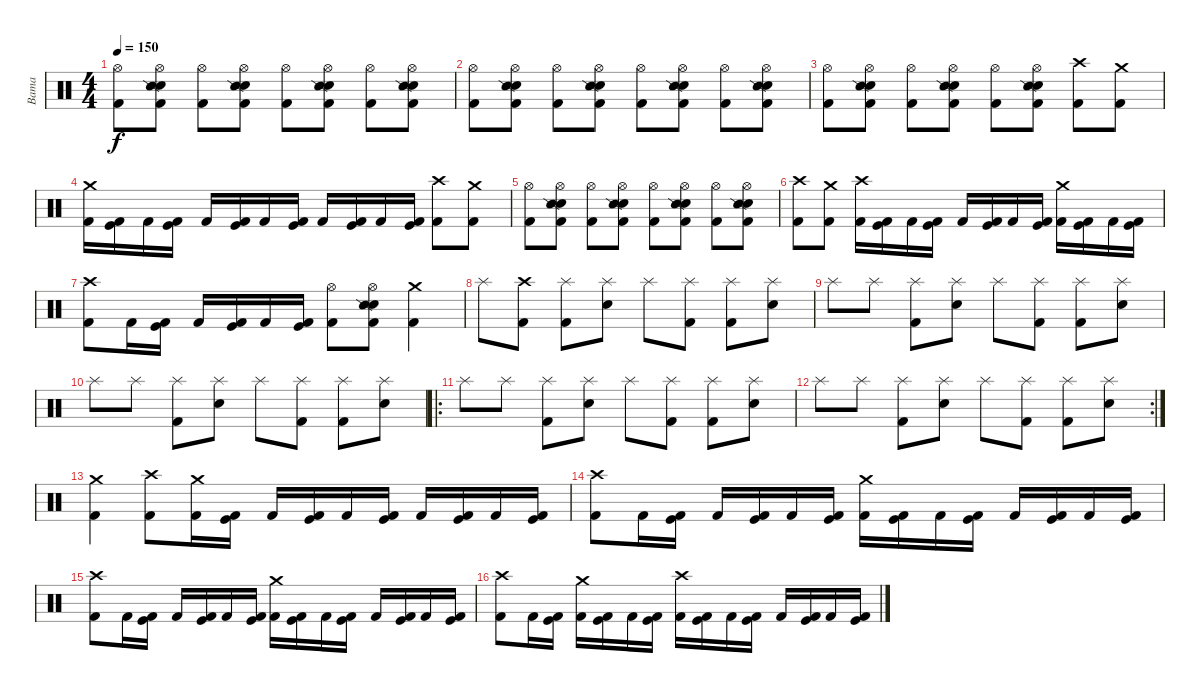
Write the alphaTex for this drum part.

\track ("Bama" "Bama") {instrument percussion}
\staff {score}
\articulation defaults
\ts (4 4)
\tempo 150
\clef neutral
\ks c
("Hi-Hat (open)" "Kick (hit) 2").8{dy f} ("Hi-Hat (open)" "Electric Snare (hit)" "Snare (side stick) 2" "Kick (hit) 2").8 ("Hi-Hat (open)" "Kick (hit) 2").8 ("Hi-Hat (open)" "Electric Snare (hit)" "Snare (side stick) 2" "Kick (hit) 2").8 ("Hi-Hat (open)" "Kick (hit) 2").8 ("Hi-Hat (open)" "Electric Snare (hit)" "Snare (side stick) 2" "Kick (hit) 2").8 ("Hi-Hat (open)" "Kick (hit) 2").8 ("Hi-Hat (open)" "Electric Snare (hit)" "Snare (side stick) 2" "Kick (hit) 2").8 |
("Hi-Hat (open)" "Kick (hit) 2").8 ("Hi-Hat (open)" "Electric Snare (hit)" "Snare (side stick) 2" "Kick (hit) 2").8 ("Hi-Hat (open)" "Kick (hit) 2").8 ("Hi-Hat (open)" "Electric Snare (hit)" "Snare (side stick) 2" "Kick (hit) 2").8 ("Hi-Hat (open)" "Kick (hit) 2").8 ("Hi-Hat (open)" "Electric Snare (hit)" "Snare (side stick) 2" "Kick (hit) 2").8 ("Hi-Hat (open)" "Kick (hit) 2").8 ("Hi-Hat (open)" "Electric Snare (hit)" "Snare (side stick) 2" "Kick (hit) 2").8 |
("Hi-Hat (open)" "Kick (hit) 2").8 ("Hi-Hat (open)" "Electric Snare (hit)" "Snare (side stick) 2" "Kick (hit) 2").8 ("Hi-Hat (open)" "Kick (hit) 2").8 ("Hi-Hat (open)" "Electric Snare (hit)" "Snare (side stick) 2" "Kick (hit) 2").8 ("Hi-Hat (open)" "Kick (hit) 2").8 ("Hi-Hat (open)" "Electric Snare (hit)" "Snare (side stick) 2" "Kick (hit) 2").8 ("Crash high (hit)" "Kick (hit) 2").8 ("Crash medium (hit)" "Kick (hit) 2").8 |
("Crash medium (hit)" "Kick (hit) 2").16 ("Kick (hit)" "Kick (hit) 2").16 "Kick (hit) 2".16 ("Kick (hit)" "Kick (hit) 2").16 "Kick (hit) 2".16 ("Kick (hit)" "Kick (hit) 2").16 "Kick (hit) 2".16 ("Kick (hit)" "Kick (hit) 2").16 "Kick (hit) 2".16 ("Kick (hit)" "Kick (hit) 2").16 "Kick (hit) 2".16 ("Kick (hit)" "Kick (hit) 2").16 ("Crash high (hit)" "Kick (hit) 2").8 ("Crash medium (hit)" "Kick (hit) 2").8 |
("Hi-Hat (open)" "Kick (hit) 2").8 ("Hi-Hat (open)" "Electric Snare (hit)" "Snare (side stick) 2" "Kick (hit) 2").8 ("Hi-Hat (open)" "Kick (hit) 2").8 ("Hi-Hat (open)" "Electric Snare (hit)" "Snare (side stick) 2" "Kick (hit) 2").8 ("Hi-Hat (open)" "Kick (hit) 2").8 ("Hi-Hat (open)" "Electric Snare (hit)" "Snare (side stick) 2" "Kick (hit) 2").8 ("Hi-Hat (open)" "Kick (hit) 2").8 ("Hi-Hat (open)" "Electric Snare (hit)" "Snare (side stick) 2" "Kick (hit) 2").8 |
("Crash high (hit)" "Kick (hit) 2").8 ("Crash medium (hit)" "Kick (hit) 2").8 ("Crash high (hit)" "Kick (hit) 2").16 ("Kick (hit)" "Kick (hit) 2").16 "Kick (hit) 2".16 ("Kick (hit)" "Kick (hit) 2").16 "Kick (hit) 2".16 ("Kick (hit)" "Kick (hit) 2").16 "Kick (hit) 2".16 ("Kick (hit)" "Kick (hit) 2").16 ("Crash medium (hit)" "Kick (hit) 2").16 ("Kick (hit)" "Kick (hit) 2").16 "Kick (hit) 2".16 ("Kick (hit)" "Kick (hit) 2").16 |
("Crash high (hit)" "Kick (hit) 2").8 "Kick (hit) 2".16 ("Kick (hit)" "Kick (hit) 2").16 "Kick (hit) 2".16 ("Kick (hit)" "Kick (hit) 2").16 "Kick (hit) 2".16 ("Kick (hit)" "Kick (hit) 2").16 ("Hi-Hat (open)" "Kick (hit) 2").8 ("Hi-Hat (open)" "Electric Snare (hit)" "Snare (side stick) 2" "Kick (hit) 2").8 ("Crash medium (hit)" "Kick (hit) 2").4 |
"Splash (hit)".8 ("Crash high (hit)" "Kick (hit) 2").8 ("Splash (hit)" "Kick (hit) 2").8 ("Splash (hit)" "Electric Snare (hit)").8 "Splash (hit)".8 ("Splash (hit)" "Kick (hit) 2").8 ("Splash (hit)" "Kick (hit) 2").8 ("Splash (hit)" "Electric Snare (hit)").8 |
"Splash (hit)".8 "Splash (hit)".8 ("Splash (hit)" "Kick (hit) 2").8 ("Splash (hit)" "Electric Snare (hit)").8 "Splash (hit)".8 ("Splash (hit)" "Kick (hit) 2").8 ("Splash (hit)" "Kick (hit) 2").8 ("Splash (hit)" "Electric Snare (hit)").8 |
"Splash (hit)".8 "Splash (hit)".8 ("Splash (hit)" "Kick (hit) 2").8 ("Splash (hit)" "Electric Snare (hit)").8 "Splash (hit)".8 ("Splash (hit)" "Kick (hit) 2").8 ("Splash (hit)" "Kick (hit) 2").8 ("Splash (hit)" "Electric Snare (hit)").8 |
\ro "Splash (hit)".8 "Splash (hit)".8
("Splash (hit)" "Kick (hit) 2").8 ("Splash (hit)" "Electric Snare (hit)").8 "Splash (hit)".8 ("Splash (hit)" "Kick (hit) 2").8 ("Splash (hit)" "Kick (hit) 2").8 ("Splash (hit)" "Electric Snare (hit)").8 |
\rc 2 "Splash (hit)".8 "Splash (hit)".8
("Splash (hit)" "Kick (hit) 2").8 ("Splash (hit)" "Electric Snare (hit)").8 "Splash (hit)".8 ("Splash (hit)" "Kick (hit) 2").8 ("Splash (hit)" "Kick (hit) 2").8 ("Splash (hit)" "Electric Snare (hit)").8 |
("Crash medium (hit)" "Kick (hit) 2").4 ("Crash high (hit)" "Kick (hit) 2").8 ("Crash medium (hit)" "Kick (hit) 2").16 ("Kick (hit)" "Kick (hit) 2").16 "Kick (hit) 2".16 ("Kick (hit)" "Kick (hit) 2").16 "Kick (hit) 2".16 ("Kick (hit)" "Kick (hit) 2").16 "Kick (hit) 2".16 ("Kick (hit)" "Kick (hit) 2").16 "Kick (hit) 2".16 ("Kick (hit)" "Kick (hit) 2").16 |
("Crash high (hit)" "Kick (hit) 2").8 "Kick (hit) 2".16 ("Kick (hit)" "Kick (hit) 2").16 "Kick (hit) 2".16 ("Kick (hit)" "Kick (hit) 2").16 "Kick (hit) 2".16 ("Kick (hit)" "Kick (hit) 2").16 ("Crash medium (hit)" "Kick (hit) 2").16 ("Kick (hit)" "Kick (hit) 2").16 "Kick (hit) 2".16 ("Kick (hit)" "Kick (hit) 2").16 "Kick (hit) 2".16 ("Kick (hit)" "Kick (hit) 2").16 "Kick (hit) 2".16 ("Kick (hit)" "Kick (hit) 2").16 |
("Crash high (hit)" "Kick (hit) 2").8 "Kick (hit) 2".16 ("Kick (hit)" "Kick (hit) 2").16 "Kick (hit) 2".16 ("Kick (hit)" "Kick (hit) 2").16 "Kick (hit) 2".16 ("Kick (hit)" "Kick (hit) 2").16 ("Crash medium (hit)" "Kick (hit) 2").16 ("Kick (hit)" "Kick (hit) 2").16 "Kick (hit) 2".16 ("Kick (hit)" "Kick (hit) 2").16 "Kick (hit) 2".16 ("Kick (hit)" "Kick (hit) 2").16 "Kick (hit) 2".16 ("Kick (hit)" "Kick (hit) 2").16 |
("Crash high (hit)" "Kick (hit) 2").8 "Kick (hit) 2".16 ("Kick (hit)" "Kick (hit) 2").16 ("Crash medium (hit)" "Kick (hit) 2").16 ("Kick (hit)" "Kick (hit) 2").16 "Kick (hit) 2".16 ("Kick (hit)" "Kick (hit) 2").16 ("Crash high (hit)" "Kick (hit) 2").16 ("Kick (hit)" "Kick (hit) 2").16 "Kick (hit) 2".16 ("Kick (hit)" "Kick (hit) 2").16 "Kick (hit) 2".16 ("Kick (hit)" "Kick (hit) 2").16 "Kick (hit) 2".16 ("Kick (hit)" "Kick (hit) 2").16
